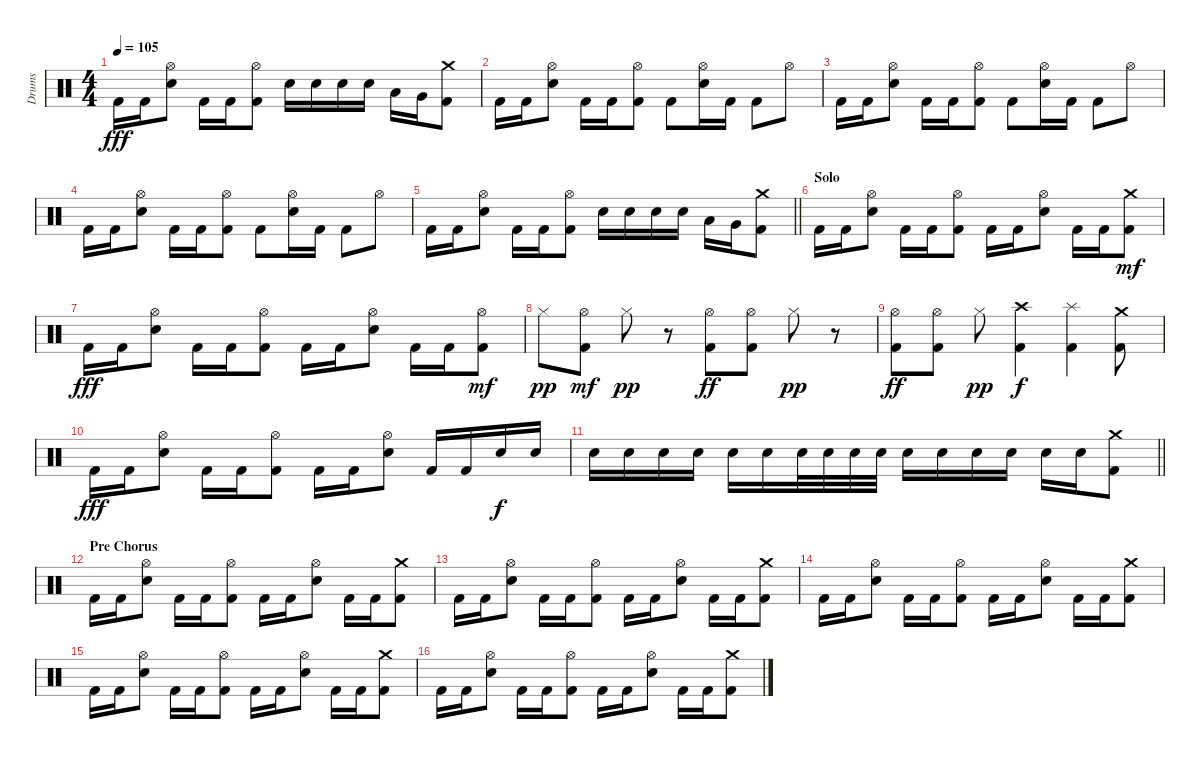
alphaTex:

\track ("Drums" "Drums") {instrument percussion}
\staff {score}
\articulation defaults
\ts (4 4)
\tempo 105
\clef neutral
\ks c "Kick (hit) 2".16{dy fff} "Kick (hit) 2".16
("Hi-Hat (open)" "Snare (hit) 2").8 "Kick (hit) 2".16 "Kick (hit) 2".16 ("Hi-Hat (open)" "Kick (hit) 2").8 "Snare (hit) 2".16 "Snare (hit) 2".16 "Snare (hit) 2".16 "Snare (hit) 2".16 "Low Tom (hit)".16 "Very Low Tom (hit)".16 ("Crash medium (hit)" "Kick (hit) 2").8 |
"Kick (hit) 2".16 "Kick (hit) 2".16 ("Hi-Hat (open)" "Snare (hit) 2").8 "Kick (hit) 2".16 "Kick (hit) 2".16 ("Hi-Hat (open)" "Kick (hit) 2").8 "Kick (hit) 2".8 ("Hi-Hat (open)" "Snare (hit) 2").16 "Kick (hit) 2".16 "Kick (hit) 2".8 "Hi-Hat (open)".8 |
"Kick (hit) 2".16 "Kick (hit) 2".16 ("Hi-Hat (open)" "Snare (hit) 2").8 "Kick (hit) 2".16 "Kick (hit) 2".16 ("Hi-Hat (open)" "Kick (hit) 2").8 "Kick (hit) 2".8 ("Hi-Hat (open)" "Snare (hit) 2").16 "Kick (hit) 2".16 "Kick (hit) 2".8 "Hi-Hat (open)".8 |
"Kick (hit) 2".16 "Kick (hit) 2".16 ("Hi-Hat (open)" "Snare (hit) 2").8 "Kick (hit) 2".16 "Kick (hit) 2".16 ("Hi-Hat (open)" "Kick (hit) 2").8 "Kick (hit) 2".8 ("Hi-Hat (open)" "Snare (hit) 2").16 "Kick (hit) 2".16 "Kick (hit) 2".8 "Hi-Hat (open)".8 |
\barLineRight lightlight "Kick (hit) 2".16 "Kick (hit) 2".16
("Hi-Hat (open)" "Snare (hit) 2").8 "Kick (hit) 2".16 "Kick (hit) 2".16 ("Hi-Hat (open)" "Kick (hit) 2").8 "Snare (hit) 2".16 "Snare (hit) 2".16 "Snare (hit) 2".16 "Snare (hit) 2".16 "Low Tom (hit)".16 "Very Low Tom (hit)".16 ("Crash medium (hit)" "Kick (hit) 2").8 |
\section ("" "Solo")
"Kick (hit) 2".16 "Kick (hit) 2".16 ("Hi-Hat (open)" "Snare (hit) 2").8 "Kick (hit) 2".16 "Kick (hit) 2".16 ("Hi-Hat (open)" "Kick (hit) 2").8 "Kick (hit) 2".16 "Kick (hit) 2".16 ("Hi-Hat (open)" "Snare (hit) 2").8 "Kick (hit) 2".16 "Kick (hit) 2".16 ("Crash medium (hit)" "Kick (hit) 2").8{dy mf} |
"Kick (hit) 2".16{dy fff} "Kick (hit) 2".16 ("Hi-Hat (open)" "Snare (hit) 2").8 "Kick (hit) 2".16 "Kick (hit) 2".16 ("Hi-Hat (open)" "Kick (hit) 2").8 "Kick (hit) 2".16 "Kick (hit) 2".16 ("Hi-Hat (open)" "Snare (hit) 2").8 "Kick (hit) 2".16 "Kick (hit) 2".16 ("Hi-Hat (open)" "Kick (hit) 2").8{dy mf} |
"Hi-Hat (closed)".8{dy pp} ("Hi-Hat (open)" "Kick (hit) 2").8{dy mf} "Hi-Hat (closed)".8{dy pp} r.8 ("Hi-Hat (open)" "Kick (hit) 2").8{dy ff} ("Hi-Hat (open)" "Kick (hit) 2").8 "Hi-Hat (closed)".8{dy pp} r.8 |
("Hi-Hat (open)" "Kick (hit) 2").8{dy ff} ("Hi-Hat (open)" "Kick (hit) 2").8 "Hi-Hat (closed)".8{dy pp} ("Crash high (hit)" "Kick (hit) 2").4{dy f} ("Splash (hit)" "Kick (hit) 2").4 ("Crash medium (hit)" "Kick (hit) 2").8 |
"Kick (hit) 2".16{dy fff} "Kick (hit) 2".16 ("Hi-Hat (open)" "Snare (hit) 2").8 "Kick (hit) 2".16 "Kick (hit) 2".16 ("Hi-Hat (open)" "Kick (hit) 2").8 "Kick (hit) 2".16 "Kick (hit) 2".16 ("Hi-Hat (open)" "Snare (hit) 2").8 "Kick (hit) 2".16 "Kick (hit) 2".16 "Snare (hit) 2".16{dy f} "Snare (hit) 2".16 |
\barLineRight lightlight "Snare (hit) 2".16 "Snare (hit) 2".16 "Snare (hit) 2".16 "Snare (hit) 2".16 "Snare (hit) 2".16 "Snare (hit) 2".16 "Snare (hit) 2".32 "Snare (hit) 2".32 "Snare (hit) 2".32 "Snare (hit) 2".32 "Snare (hit) 2".16 "Snare (hit) 2".16 "Snare (hit) 2".16 "Snare (hit) 2".16 "Snare (hit) 2".16 "Snare (hit) 2".16
("Crash medium (hit)" "Kick (hit) 2").8 |
\section ("" "Pre Chorus")
"Kick (hit) 2".16 "Kick (hit) 2".16 ("Hi-Hat (open)" "Snare (hit) 2").8 "Kick (hit) 2".16 "Kick (hit) 2".16 ("Hi-Hat (open)" "Kick (hit) 2").8 "Kick (hit) 2".16 "Kick (hit) 2".16 ("Hi-Hat (open)" "Snare (hit) 2").8 "Kick (hit) 2".16 "Kick (hit) 2".16 ("Crash medium (hit)" "Kick (hit) 2").8 |
"Kick (hit) 2".16 "Kick (hit) 2".16 ("Hi-Hat (open)" "Snare (hit) 2").8 "Kick (hit) 2".16 "Kick (hit) 2".16 ("Hi-Hat (open)" "Kick (hit) 2").8 "Kick (hit) 2".16 "Kick (hit) 2".16 ("Hi-Hat (open)" "Snare (hit) 2").8 "Kick (hit) 2".16 "Kick (hit) 2".16 ("Crash medium (hit)" "Kick (hit) 2").8 |
"Kick (hit) 2".16 "Kick (hit) 2".16 ("Hi-Hat (open)" "Snare (hit) 2").8 "Kick (hit) 2".16 "Kick (hit) 2".16 ("Hi-Hat (open)" "Kick (hit) 2").8 "Kick (hit) 2".16 "Kick (hit) 2".16 ("Hi-Hat (open)" "Snare (hit) 2").8 "Kick (hit) 2".16 "Kick (hit) 2".16 ("Crash medium (hit)" "Kick (hit) 2").8 |
"Kick (hit) 2".16 "Kick (hit) 2".16 ("Hi-Hat (open)" "Snare (hit) 2").8 "Kick (hit) 2".16 "Kick (hit) 2".16 ("Hi-Hat (open)" "Kick (hit) 2").8 "Kick (hit) 2".16 "Kick (hit) 2".16 ("Hi-Hat (open)" "Snare (hit) 2").8 "Kick (hit) 2".16 "Kick (hit) 2".16 ("Crash medium (hit)" "Kick (hit) 2").8 |
"Kick (hit) 2".16 "Kick (hit) 2".16 ("Hi-Hat (open)" "Snare (hit) 2").8 "Kick (hit) 2".16 "Kick (hit) 2".16 ("Hi-Hat (open)" "Kick (hit) 2").8 "Kick (hit) 2".16 "Kick (hit) 2".16 ("Hi-Hat (open)" "Snare (hit) 2").8 "Kick (hit) 2".16 "Kick (hit) 2".16 ("Crash medium (hit)" "Kick (hit) 2").8
